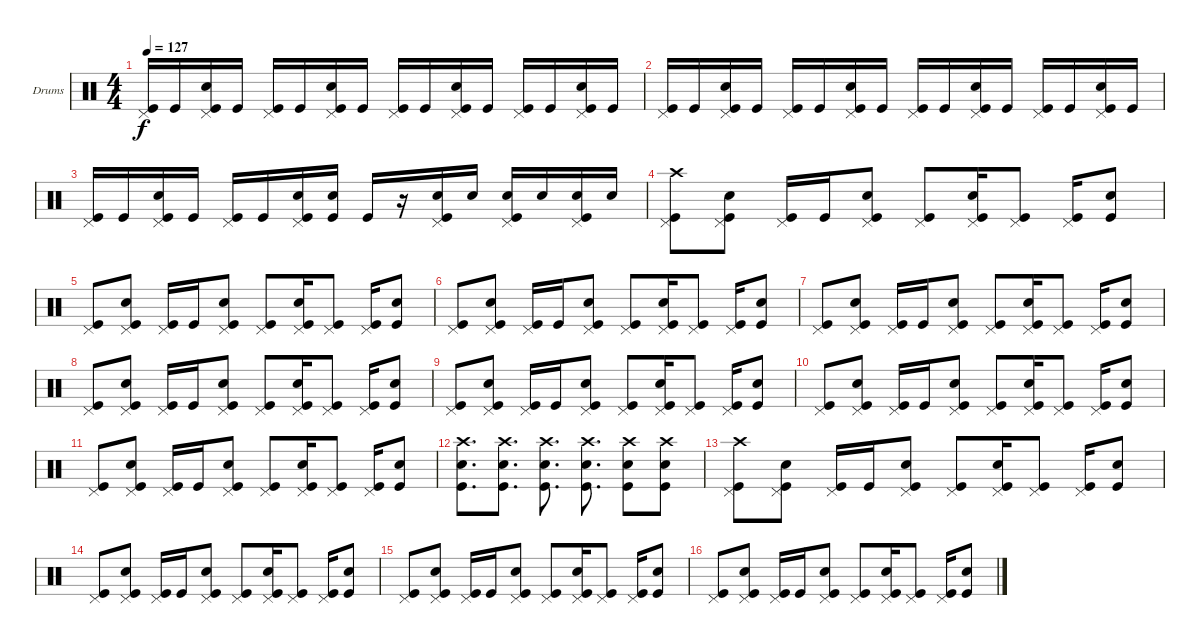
\bracketExtendMode groupsimilarinstruments
\firstSystemTrackNameOrientation horizontal
\otherSystemsTrackNameOrientation horizontal
\track ("Drumkit" "Drums") {instrument percussion}
\staff {score}
\articulation defaults
\ts (4 4)
\tempo 127
\clef neutral
\ks c
("Pedal Hi-Hat (hit)" "Kick (hit)").16{dy f} "Kick (hit)".16 ("Pedal Hi-Hat (hit)" "Snare (hit) 2" "Kick (hit)").16 "Kick (hit)".16 ("Pedal Hi-Hat (hit)" "Kick (hit)").16 "Kick (hit)".16 ("Pedal Hi-Hat (hit)" "Snare (hit) 2" "Kick (hit)").16 "Kick (hit)".16 ("Pedal Hi-Hat (hit)" "Kick (hit)").16 "Kick (hit)".16 ("Pedal Hi-Hat (hit)" "Snare (hit) 2" "Kick (hit)").16 "Kick (hit)".16 ("Pedal Hi-Hat (hit)" "Kick (hit)").16 "Kick (hit)".16 ("Pedal Hi-Hat (hit)" "Snare (hit) 2" "Kick (hit)").16 "Kick (hit)".16 |
("Pedal Hi-Hat (hit)" "Kick (hit)").16 "Kick (hit)".16 ("Pedal Hi-Hat (hit)" "Snare (hit) 2" "Kick (hit)").16 "Kick (hit)".16 ("Pedal Hi-Hat (hit)" "Kick (hit)").16 "Kick (hit)".16 ("Pedal Hi-Hat (hit)" "Snare (hit) 2" "Kick (hit)").16 "Kick (hit)".16 ("Pedal Hi-Hat (hit)" "Kick (hit)").16 "Kick (hit)".16 ("Pedal Hi-Hat (hit)" "Snare (hit) 2" "Kick (hit)").16 "Kick (hit)".16 ("Pedal Hi-Hat (hit)" "Kick (hit)").16 "Kick (hit)".16 ("Pedal Hi-Hat (hit)" "Snare (hit) 2" "Kick (hit)").16 "Kick (hit)".16 |
("Pedal Hi-Hat (hit)" "Kick (hit)").16 "Kick (hit)".16 ("Pedal Hi-Hat (hit)" "Snare (hit) 2" "Kick (hit)").16 "Kick (hit)".16 ("Pedal Hi-Hat (hit)" "Kick (hit)").16 "Kick (hit)".16 ("Pedal Hi-Hat (hit)" "Snare (hit) 2" "Kick (hit)").16 ("Snare (hit) 2" "Kick (hit)").16 "Kick (hit)".16 r.16 ("Pedal Hi-Hat (hit)" "Snare (hit) 2" "Kick (hit)").16 "Snare (hit) 2".16 ("Pedal Hi-Hat (hit)" "Snare (hit) 2" "Kick (hit)").16 "Snare (hit) 2".16 ("Pedal Hi-Hat (hit)" "Snare (hit) 2" "Kick (hit)").16 "Snare (hit) 2".16 |
("Pedal Hi-Hat (hit)" "Crash high (hit)" "Kick (hit)").8 ("Pedal Hi-Hat (hit)" "Snare (hit) 2" "Kick (hit)").8 ("Pedal Hi-Hat (hit)" "Kick (hit)").16 "Kick (hit)".16 ("Pedal Hi-Hat (hit)" "Snare (hit) 2" "Kick (hit)").8 ("Pedal Hi-Hat (hit)" "Kick (hit)").8 ("Pedal Hi-Hat (hit)" "Snare (hit) 2" "Kick (hit)").16 ("Pedal Hi-Hat (hit)" "Kick (hit)").8 ("Pedal Hi-Hat (hit)" "Kick (hit)").16 ("Snare (hit) 2" "Kick (hit)").8 |
("Pedal Hi-Hat (hit)" "Kick (hit)").8 ("Pedal Hi-Hat (hit)" "Snare (hit) 2" "Kick (hit)").8 ("Pedal Hi-Hat (hit)" "Kick (hit)").16 "Kick (hit)".16 ("Pedal Hi-Hat (hit)" "Snare (hit) 2" "Kick (hit)").8 ("Pedal Hi-Hat (hit)" "Kick (hit)").8 ("Pedal Hi-Hat (hit)" "Snare (hit) 2" "Kick (hit)").16 ("Pedal Hi-Hat (hit)" "Kick (hit)").8 ("Pedal Hi-Hat (hit)" "Kick (hit)").16 ("Snare (hit) 2" "Kick (hit)").8 |
("Pedal Hi-Hat (hit)" "Kick (hit)").8 ("Pedal Hi-Hat (hit)" "Snare (hit) 2" "Kick (hit)").8 ("Pedal Hi-Hat (hit)" "Kick (hit)").16 "Kick (hit)".16 ("Pedal Hi-Hat (hit)" "Snare (hit) 2" "Kick (hit)").8 ("Pedal Hi-Hat (hit)" "Kick (hit)").8 ("Pedal Hi-Hat (hit)" "Snare (hit) 2" "Kick (hit)").16 ("Pedal Hi-Hat (hit)" "Kick (hit)").8 ("Pedal Hi-Hat (hit)" "Kick (hit)").16 ("Snare (hit) 2" "Kick (hit)").8 |
("Pedal Hi-Hat (hit)" "Kick (hit)").8 ("Pedal Hi-Hat (hit)" "Snare (hit) 2" "Kick (hit)").8 ("Pedal Hi-Hat (hit)" "Kick (hit)").16 "Kick (hit)".16 ("Pedal Hi-Hat (hit)" "Snare (hit) 2" "Kick (hit)").8 ("Pedal Hi-Hat (hit)" "Kick (hit)").8 ("Pedal Hi-Hat (hit)" "Snare (hit) 2" "Kick (hit)").16 ("Pedal Hi-Hat (hit)" "Kick (hit)").8 ("Pedal Hi-Hat (hit)" "Kick (hit)").16 ("Snare (hit) 2" "Kick (hit)").8 |
("Pedal Hi-Hat (hit)" "Kick (hit)").8 ("Pedal Hi-Hat (hit)" "Snare (hit) 2" "Kick (hit)").8 ("Pedal Hi-Hat (hit)" "Kick (hit)").16 "Kick (hit)".16 ("Pedal Hi-Hat (hit)" "Snare (hit) 2" "Kick (hit)").8 ("Pedal Hi-Hat (hit)" "Kick (hit)").8 ("Pedal Hi-Hat (hit)" "Snare (hit) 2" "Kick (hit)").16 ("Pedal Hi-Hat (hit)" "Kick (hit)").8 ("Pedal Hi-Hat (hit)" "Kick (hit)").16 ("Snare (hit) 2" "Kick (hit)").8 |
("Pedal Hi-Hat (hit)" "Kick (hit)").8 ("Pedal Hi-Hat (hit)" "Snare (hit) 2" "Kick (hit)").8 ("Pedal Hi-Hat (hit)" "Kick (hit)").16 "Kick (hit)".16 ("Pedal Hi-Hat (hit)" "Snare (hit) 2" "Kick (hit)").8 ("Pedal Hi-Hat (hit)" "Kick (hit)").8 ("Pedal Hi-Hat (hit)" "Snare (hit) 2" "Kick (hit)").16 ("Pedal Hi-Hat (hit)" "Kick (hit)").8 ("Pedal Hi-Hat (hit)" "Kick (hit)").16 ("Snare (hit) 2" "Kick (hit)").8 |
("Pedal Hi-Hat (hit)" "Kick (hit)").8 ("Pedal Hi-Hat (hit)" "Snare (hit) 2" "Kick (hit)").8 ("Pedal Hi-Hat (hit)" "Kick (hit)").16 "Kick (hit)".16 ("Pedal Hi-Hat (hit)" "Snare (hit) 2" "Kick (hit)").8 ("Pedal Hi-Hat (hit)" "Kick (hit)").8 ("Pedal Hi-Hat (hit)" "Snare (hit) 2" "Kick (hit)").16 ("Pedal Hi-Hat (hit)" "Kick (hit)").8 ("Pedal Hi-Hat (hit)" "Kick (hit)").16 ("Snare (hit) 2" "Kick (hit)").8 |
("Pedal Hi-Hat (hit)" "Kick (hit)").8 ("Pedal Hi-Hat (hit)" "Snare (hit) 2" "Kick (hit)").8 ("Pedal Hi-Hat (hit)" "Kick (hit)").16 "Kick (hit)".16 ("Pedal Hi-Hat (hit)" "Snare (hit) 2" "Kick (hit)").8 ("Pedal Hi-Hat (hit)" "Kick (hit)").8 ("Pedal Hi-Hat (hit)" "Snare (hit) 2" "Kick (hit)").16 ("Pedal Hi-Hat (hit)" "Kick (hit)").8 ("Pedal Hi-Hat (hit)" "Kick (hit)").16 ("Snare (hit) 2" "Kick (hit)").8 |
("Crash high (hit)" "Snare (hit) 2" "Kick (hit)").8{d} ("Crash high (hit)" "Snare (hit) 2" "Kick (hit)").8{d} ("Crash high (hit)" "Snare (hit) 2" "Kick (hit)").8{d} ("Crash high (hit)" "Snare (hit) 2" "Kick (hit)").8{d} ("Crash high (hit)" "Snare (hit) 2" "Kick (hit)").8 ("Crash high (hit)" "Snare (hit) 2" "Kick (hit)").8 |
("Pedal Hi-Hat (hit)" "Crash high (hit)" "Kick (hit)").8 ("Pedal Hi-Hat (hit)" "Snare (hit) 2" "Kick (hit)").8 ("Pedal Hi-Hat (hit)" "Kick (hit)").16 "Kick (hit)".16 ("Pedal Hi-Hat (hit)" "Snare (hit) 2" "Kick (hit)").8 ("Pedal Hi-Hat (hit)" "Kick (hit)").8 ("Pedal Hi-Hat (hit)" "Snare (hit) 2" "Kick (hit)").16 ("Pedal Hi-Hat (hit)" "Kick (hit)").8 ("Pedal Hi-Hat (hit)" "Kick (hit)").16 ("Snare (hit) 2" "Kick (hit)").8 |
("Pedal Hi-Hat (hit)" "Kick (hit)").8 ("Pedal Hi-Hat (hit)" "Snare (hit) 2" "Kick (hit)").8 ("Pedal Hi-Hat (hit)" "Kick (hit)").16 "Kick (hit)".16 ("Pedal Hi-Hat (hit)" "Snare (hit) 2" "Kick (hit)").8 ("Pedal Hi-Hat (hit)" "Kick (hit)").8 ("Pedal Hi-Hat (hit)" "Snare (hit) 2" "Kick (hit)").16 ("Pedal Hi-Hat (hit)" "Kick (hit)").8 ("Pedal Hi-Hat (hit)" "Kick (hit)").16 ("Snare (hit) 2" "Kick (hit)").8 |
("Pedal Hi-Hat (hit)" "Kick (hit)").8 ("Pedal Hi-Hat (hit)" "Snare (hit) 2" "Kick (hit)").8 ("Pedal Hi-Hat (hit)" "Kick (hit)").16 "Kick (hit)".16 ("Pedal Hi-Hat (hit)" "Snare (hit) 2" "Kick (hit)").8 ("Pedal Hi-Hat (hit)" "Kick (hit)").8 ("Pedal Hi-Hat (hit)" "Snare (hit) 2" "Kick (hit)").16 ("Pedal Hi-Hat (hit)" "Kick (hit)").8 ("Pedal Hi-Hat (hit)" "Kick (hit)").16 ("Snare (hit) 2" "Kick (hit)").8 |
("Pedal Hi-Hat (hit)" "Kick (hit)").8 ("Pedal Hi-Hat (hit)" "Snare (hit) 2" "Kick (hit)").8 ("Pedal Hi-Hat (hit)" "Kick (hit)").16 "Kick (hit)".16 ("Pedal Hi-Hat (hit)" "Snare (hit) 2" "Kick (hit)").8 ("Pedal Hi-Hat (hit)" "Kick (hit)").8 ("Pedal Hi-Hat (hit)" "Snare (hit) 2" "Kick (hit)").16 ("Pedal Hi-Hat (hit)" "Kick (hit)").8 ("Pedal Hi-Hat (hit)" "Kick (hit)").16 ("Snare (hit) 2" "Kick (hit)").8
